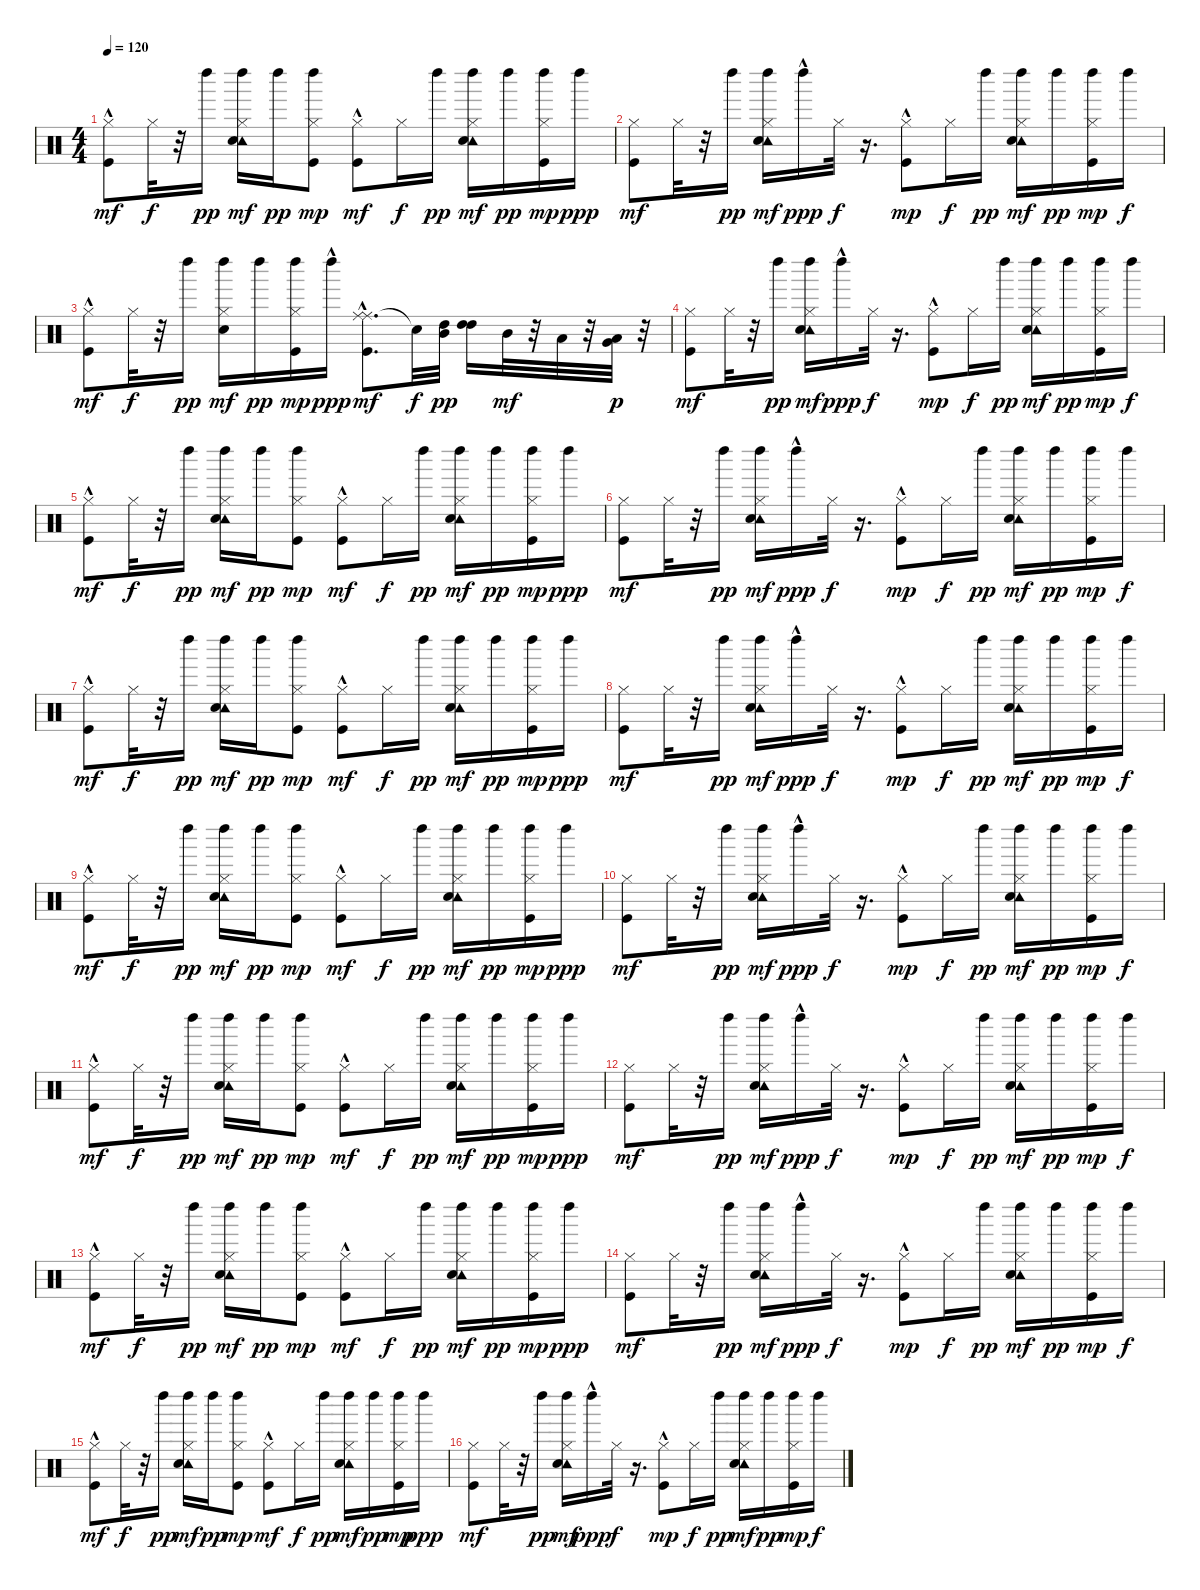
\track "" {instrument percussion}
\staff {score}
\articulation defaults
\ts (4 4)
\tempo 120
\clef neutral
\ks c
("Kick (hit)"{hac} "Hi-Hat (closed)").8{dy mf} "Hi-Hat (closed)".32{dy f} r.32 "Left Maraca (hit)".16{dy pp} ("Left Maraca (hit)" "Tambourine (hit)" "Hi-Hat (closed)" "Electric Snare (hit)").16{dy mf} "Left Maraca (hit)".16{dy pp} ("Left Maraca (hit)" "Hi-Hat (closed)" "Kick (hit)").8{dy mp} ("Kick (hit)"{hac} "Hi-Hat (closed)").8{dy mf} "Hi-Hat (closed)".16{dy f} "Left Maraca (hit)".16{dy pp} ("Left Maraca (hit)" "Tambourine (hit)" "Electric Snare (hit)" "Hi-Hat (closed)").16{dy mf} "Left Maraca (hit)".16{dy pp} ("Left Maraca (hit)" "Kick (hit)" "Hi-Hat (closed)").16{dy mp} "Left Maraca (hit)".16{dy ppp} |
("Kick (hit)" "Hi-Hat (closed)").8{dy mf} "Hi-Hat (closed)".32 r.32 "Left Maraca (hit)".16{dy pp} ("Left Maraca (hit)" "Tambourine (hit)" "Electric Snare (hit)" "Hi-Hat (closed)").16{dy mf} "Left Maraca (hit)"{hac}.16{dy ppp} "Hi-Hat (closed)".32{dy f} r.16{d} ("Hi-Hat (closed)" "Kick (hit)"{hac}).8{dy mp} "Hi-Hat (closed)".16{dy f} "Left Maraca (hit)".16{dy pp} ("Left Maraca (hit)" "Tambourine (hit)" "Electric Snare (hit)" "Hi-Hat (closed)").16{dy mf} "Left Maraca (hit)".16{dy pp} ("Left Maraca (hit)" "Kick (hit)" "Hi-Hat (closed)").16{dy mp} "Left Maraca (hit)".16{dy f} |
("Kick (hit)"{hac} "Hi-Hat (closed)").8{dy mf} "Hi-Hat (closed)".32{dy f} r.32 "Left Maraca (hit)".16{dy pp} ("Left Maraca (hit)" "Hi-Hat (closed)" "Electric Snare (hit)").16{dy mf} "Left Maraca (hit)".16{dy pp} ("Left Maraca (hit)" "Hi-Hat (closed)" "Kick (hit)").16{dy mp} "Left Maraca (hit)"{hac}.16{dy ppp} ("Ride (middle)" "Kick (hit)"{hac} "Ride (middle)").8{d dy mf} "Snare (hit)"{t}.32{dy f} ("High Tom (hit)" "Mid Tom (hit)").32{dy pp} ("High Tom (hit)" "High Tom (hit)").16 "Mid Tom (hit)".32{dy mf} r.32 "Low Tom (hit)".32 r.32 ("Low Tom (hit)" "Very Low Tom (hit)").32{dy p} r.32 |
("Kick (hit)" "Hi-Hat (closed)").8{dy mf} "Hi-Hat (closed)".32 r.32 "Left Maraca (hit)".16{dy pp} ("Left Maraca (hit)" "Tambourine (hit)" "Electric Snare (hit)" "Hi-Hat (closed)").16{dy mf} "Left Maraca (hit)"{hac}.16{dy ppp} "Hi-Hat (closed)".32{dy f} r.16{d} ("Hi-Hat (closed)" "Kick (hit)"{hac}).8{dy mp} "Hi-Hat (closed)".16{dy f} "Left Maraca (hit)".16{dy pp} ("Left Maraca (hit)" "Tambourine (hit)" "Electric Snare (hit)" "Hi-Hat (closed)").16{dy mf} "Left Maraca (hit)".16{dy pp} ("Left Maraca (hit)" "Kick (hit)" "Hi-Hat (closed)").16{dy mp} "Left Maraca (hit)".16{dy f} |
("Kick (hit)"{hac} "Hi-Hat (closed)").8{dy mf} "Hi-Hat (closed)".32{dy f} r.32 "Left Maraca (hit)".16{dy pp} ("Left Maraca (hit)" "Tambourine (hit)" "Hi-Hat (closed)" "Electric Snare (hit)").16{dy mf} "Left Maraca (hit)".16{dy pp} ("Left Maraca (hit)" "Hi-Hat (closed)" "Kick (hit)").8{dy mp} ("Kick (hit)"{hac} "Hi-Hat (closed)").8{dy mf} "Hi-Hat (closed)".16{dy f} "Left Maraca (hit)".16{dy pp} ("Left Maraca (hit)" "Tambourine (hit)" "Electric Snare (hit)" "Hi-Hat (closed)").16{dy mf} "Left Maraca (hit)".16{dy pp} ("Left Maraca (hit)" "Kick (hit)" "Hi-Hat (closed)").16{dy mp} "Left Maraca (hit)".16{dy ppp} |
("Kick (hit)" "Hi-Hat (closed)").8{dy mf} "Hi-Hat (closed)".32 r.32 "Left Maraca (hit)".16{dy pp} ("Left Maraca (hit)" "Tambourine (hit)" "Electric Snare (hit)" "Hi-Hat (closed)").16{dy mf} "Left Maraca (hit)"{hac}.16{dy ppp} "Hi-Hat (closed)".32{dy f} r.16{d} ("Hi-Hat (closed)" "Kick (hit)"{hac}).8{dy mp} "Hi-Hat (closed)".16{dy f} "Left Maraca (hit)".16{dy pp} ("Left Maraca (hit)" "Tambourine (hit)" "Electric Snare (hit)" "Hi-Hat (closed)").16{dy mf} "Left Maraca (hit)".16{dy pp} ("Left Maraca (hit)" "Kick (hit)" "Hi-Hat (closed)").16{dy mp} "Left Maraca (hit)".16{dy f} |
("Kick (hit)"{hac} "Hi-Hat (closed)").8{dy mf} "Hi-Hat (closed)".32{dy f} r.32 "Left Maraca (hit)".16{dy pp} ("Left Maraca (hit)" "Tambourine (hit)" "Hi-Hat (closed)" "Electric Snare (hit)").16{dy mf} "Left Maraca (hit)".16{dy pp} ("Left Maraca (hit)" "Hi-Hat (closed)" "Kick (hit)").8{dy mp} ("Kick (hit)"{hac} "Hi-Hat (closed)").8{dy mf} "Hi-Hat (closed)".16{dy f} "Left Maraca (hit)".16{dy pp} ("Left Maraca (hit)" "Tambourine (hit)" "Electric Snare (hit)" "Hi-Hat (closed)").16{dy mf} "Left Maraca (hit)".16{dy pp} ("Left Maraca (hit)" "Kick (hit)" "Hi-Hat (closed)").16{dy mp} "Left Maraca (hit)".16{dy ppp} |
("Kick (hit)" "Hi-Hat (closed)").8{dy mf} "Hi-Hat (closed)".32 r.32 "Left Maraca (hit)".16{dy pp} ("Left Maraca (hit)" "Tambourine (hit)" "Electric Snare (hit)" "Hi-Hat (closed)").16{dy mf} "Left Maraca (hit)"{hac}.16{dy ppp} "Hi-Hat (closed)".32{dy f} r.16{d} ("Hi-Hat (closed)" "Kick (hit)"{hac}).8{dy mp} "Hi-Hat (closed)".16{dy f} "Left Maraca (hit)".16{dy pp} ("Left Maraca (hit)" "Tambourine (hit)" "Electric Snare (hit)" "Hi-Hat (closed)").16{dy mf} "Left Maraca (hit)".16{dy pp} ("Left Maraca (hit)" "Kick (hit)" "Hi-Hat (closed)").16{dy mp} "Left Maraca (hit)".16{dy f} |
("Kick (hit)"{hac} "Hi-Hat (closed)").8{dy mf} "Hi-Hat (closed)".32{dy f} r.32 "Left Maraca (hit)".16{dy pp} ("Left Maraca (hit)" "Tambourine (hit)" "Hi-Hat (closed)" "Electric Snare (hit)").16{dy mf} "Left Maraca (hit)".16{dy pp} ("Left Maraca (hit)" "Hi-Hat (closed)" "Kick (hit)").8{dy mp} ("Kick (hit)"{hac} "Hi-Hat (closed)").8{dy mf} "Hi-Hat (closed)".16{dy f} "Left Maraca (hit)".16{dy pp} ("Left Maraca (hit)" "Tambourine (hit)" "Electric Snare (hit)" "Hi-Hat (closed)").16{dy mf} "Left Maraca (hit)".16{dy pp} ("Left Maraca (hit)" "Kick (hit)" "Hi-Hat (closed)").16{dy mp} "Left Maraca (hit)".16{dy ppp} |
("Kick (hit)" "Hi-Hat (closed)").8{dy mf} "Hi-Hat (closed)".32 r.32 "Left Maraca (hit)".16{dy pp} ("Left Maraca (hit)" "Tambourine (hit)" "Electric Snare (hit)" "Hi-Hat (closed)").16{dy mf} "Left Maraca (hit)"{hac}.16{dy ppp} "Hi-Hat (closed)".32{dy f} r.16{d} ("Hi-Hat (closed)" "Kick (hit)"{hac}).8{dy mp} "Hi-Hat (closed)".16{dy f} "Left Maraca (hit)".16{dy pp} ("Left Maraca (hit)" "Tambourine (hit)" "Electric Snare (hit)" "Hi-Hat (closed)").16{dy mf} "Left Maraca (hit)".16{dy pp} ("Left Maraca (hit)" "Kick (hit)" "Hi-Hat (closed)").16{dy mp} "Left Maraca (hit)".16{dy f} |
("Kick (hit)"{hac} "Hi-Hat (closed)").8{dy mf} "Hi-Hat (closed)".32{dy f} r.32 "Left Maraca (hit)".16{dy pp} ("Left Maraca (hit)" "Tambourine (hit)" "Hi-Hat (closed)" "Electric Snare (hit)").16{dy mf} "Left Maraca (hit)".16{dy pp} ("Left Maraca (hit)" "Hi-Hat (closed)" "Kick (hit)").8{dy mp} ("Kick (hit)"{hac} "Hi-Hat (closed)").8{dy mf} "Hi-Hat (closed)".16{dy f} "Left Maraca (hit)".16{dy pp} ("Left Maraca (hit)" "Tambourine (hit)" "Electric Snare (hit)" "Hi-Hat (closed)").16{dy mf} "Left Maraca (hit)".16{dy pp} ("Left Maraca (hit)" "Kick (hit)" "Hi-Hat (closed)").16{dy mp} "Left Maraca (hit)".16{dy ppp} |
("Kick (hit)" "Hi-Hat (closed)").8{dy mf} "Hi-Hat (closed)".32 r.32 "Left Maraca (hit)".16{dy pp} ("Left Maraca (hit)" "Tambourine (hit)" "Electric Snare (hit)" "Hi-Hat (closed)").16{dy mf} "Left Maraca (hit)"{hac}.16{dy ppp} "Hi-Hat (closed)".32{dy f} r.16{d} ("Hi-Hat (closed)" "Kick (hit)"{hac}).8{dy mp} "Hi-Hat (closed)".16{dy f} "Left Maraca (hit)".16{dy pp} ("Left Maraca (hit)" "Tambourine (hit)" "Electric Snare (hit)" "Hi-Hat (closed)").16{dy mf} "Left Maraca (hit)".16{dy pp} ("Left Maraca (hit)" "Kick (hit)" "Hi-Hat (closed)").16{dy mp} "Left Maraca (hit)".16{dy f} |
("Kick (hit)"{hac} "Hi-Hat (closed)").8{dy mf} "Hi-Hat (closed)".32{dy f} r.32 "Left Maraca (hit)".16{dy pp} ("Left Maraca (hit)" "Tambourine (hit)" "Hi-Hat (closed)" "Electric Snare (hit)").16{dy mf} "Left Maraca (hit)".16{dy pp} ("Left Maraca (hit)" "Hi-Hat (closed)" "Kick (hit)").8{dy mp} ("Kick (hit)"{hac} "Hi-Hat (closed)").8{dy mf} "Hi-Hat (closed)".16{dy f} "Left Maraca (hit)".16{dy pp} ("Left Maraca (hit)" "Tambourine (hit)" "Electric Snare (hit)" "Hi-Hat (closed)").16{dy mf} "Left Maraca (hit)".16{dy pp} ("Left Maraca (hit)" "Kick (hit)" "Hi-Hat (closed)").16{dy mp} "Left Maraca (hit)".16{dy ppp} |
("Kick (hit)" "Hi-Hat (closed)").8{dy mf} "Hi-Hat (closed)".32 r.32 "Left Maraca (hit)".16{dy pp} ("Left Maraca (hit)" "Tambourine (hit)" "Electric Snare (hit)" "Hi-Hat (closed)").16{dy mf} "Left Maraca (hit)"{hac}.16{dy ppp} "Hi-Hat (closed)".32{dy f} r.16{d} ("Hi-Hat (closed)" "Kick (hit)"{hac}).8{dy mp} "Hi-Hat (closed)".16{dy f} "Left Maraca (hit)".16{dy pp} ("Left Maraca (hit)" "Tambourine (hit)" "Electric Snare (hit)" "Hi-Hat (closed)").16{dy mf} "Left Maraca (hit)".16{dy pp} ("Left Maraca (hit)" "Kick (hit)" "Hi-Hat (closed)").16{dy mp} "Left Maraca (hit)".16{dy f} |
("Kick (hit)"{hac} "Hi-Hat (closed)").8{dy mf} "Hi-Hat (closed)".32{dy f} r.32 "Left Maraca (hit)".16{dy pp} ("Left Maraca (hit)" "Tambourine (hit)" "Hi-Hat (closed)" "Electric Snare (hit)").16{dy mf} "Left Maraca (hit)".16{dy pp} ("Left Maraca (hit)" "Hi-Hat (closed)" "Kick (hit)").8{dy mp} ("Kick (hit)"{hac} "Hi-Hat (closed)").8{dy mf} "Hi-Hat (closed)".16{dy f} "Left Maraca (hit)".16{dy pp} ("Left Maraca (hit)" "Tambourine (hit)" "Electric Snare (hit)" "Hi-Hat (closed)").16{dy mf} "Left Maraca (hit)".16{dy pp} ("Left Maraca (hit)" "Kick (hit)" "Hi-Hat (closed)").16{dy mp} "Left Maraca (hit)".16{dy ppp} |
("Kick (hit)" "Hi-Hat (closed)").8{dy mf} "Hi-Hat (closed)".32 r.32 "Left Maraca (hit)".16{dy pp} ("Left Maraca (hit)" "Tambourine (hit)" "Electric Snare (hit)" "Hi-Hat (closed)").16{dy mf} "Left Maraca (hit)"{hac}.16{dy ppp} "Hi-Hat (closed)".32{dy f} r.16{d} ("Hi-Hat (closed)" "Kick (hit)"{hac}).8{dy mp} "Hi-Hat (closed)".16{dy f} "Left Maraca (hit)".16{dy pp} ("Left Maraca (hit)" "Tambourine (hit)" "Electric Snare (hit)" "Hi-Hat (closed)").16{dy mf} "Left Maraca (hit)".16{dy pp} ("Left Maraca (hit)" "Kick (hit)" "Hi-Hat (closed)").16{dy mp} "Left Maraca (hit)".16{dy f}
